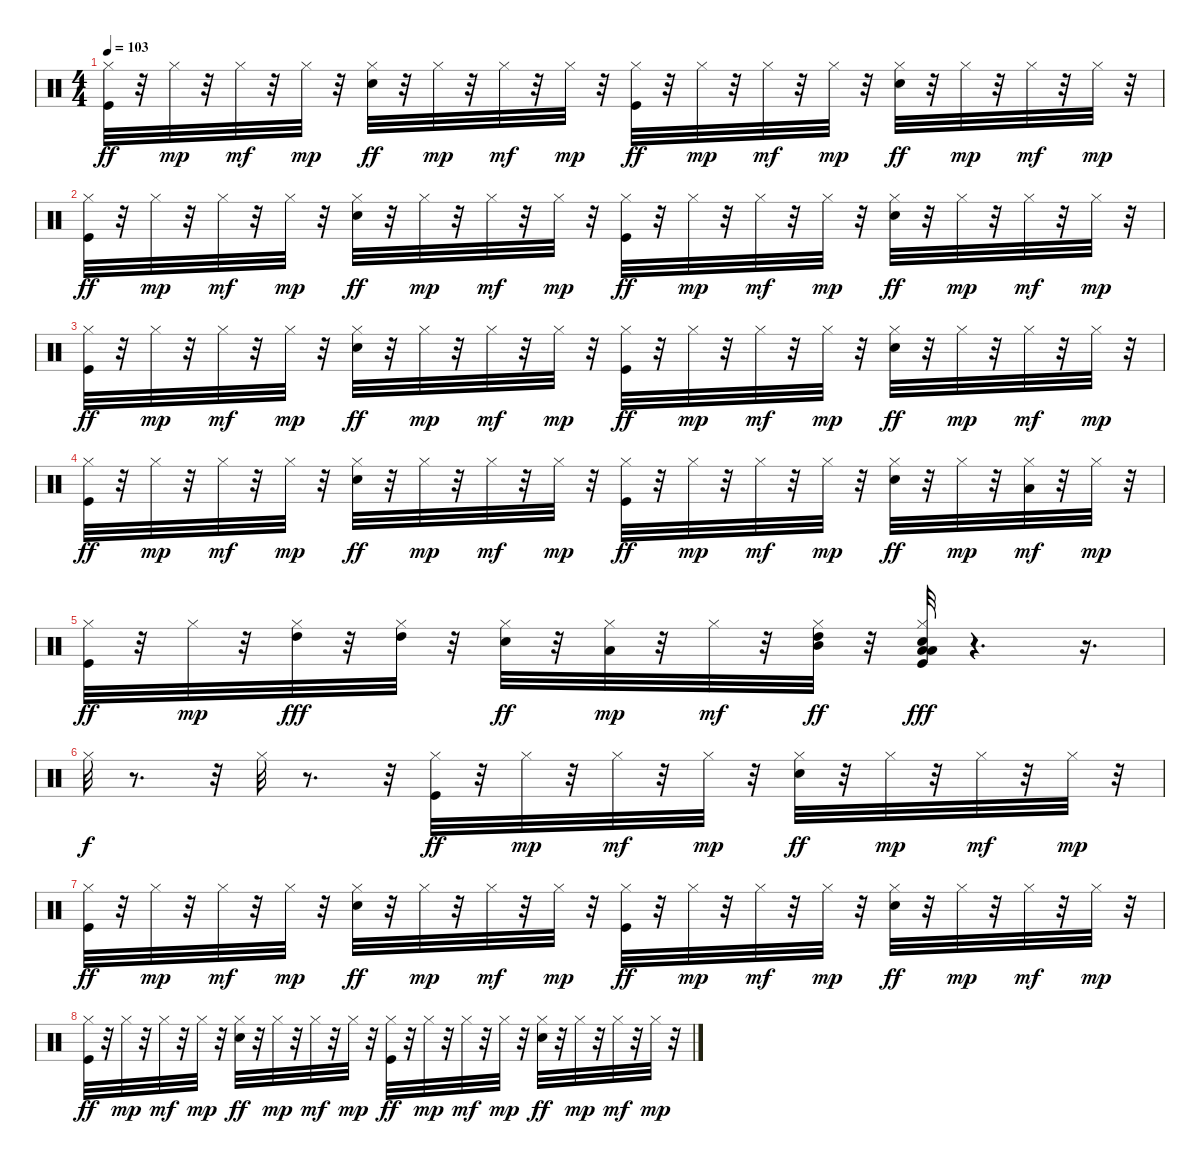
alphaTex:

\track "" {instrument percussion}
\staff {score}
\articulation defaults
\ts (4 4)
\tempo 103
\clef neutral
\ks c
("Kick (hit)" "Hi-Hat (closed)").32{dy ff} r.32 "Hi-Hat (closed)".32{dy mp} r.32 "Hi-Hat (closed)".32{dy mf} r.32 "Hi-Hat (closed)".32{dy mp} r.32 ("Snare (hit) 2" "Hi-Hat (closed)").32{dy ff} r.32 "Hi-Hat (closed)".32{dy mp} r.32 "Hi-Hat (closed)".32{dy mf} r.32 "Hi-Hat (closed)".32{dy mp} r.32 ("Kick (hit)" "Hi-Hat (closed)").32{dy ff} r.32 "Hi-Hat (closed)".32{dy mp} r.32 "Hi-Hat (closed)".32{dy mf} r.32 "Hi-Hat (closed)".32{dy mp} r.32 ("Snare (hit) 2" "Hi-Hat (closed)").32{dy ff} r.32 "Hi-Hat (closed)".32{dy mp} r.32 "Hi-Hat (closed)".32{dy mf} r.32 "Hi-Hat (closed)".32{dy mp} r.32 |
("Kick (hit)" "Hi-Hat (closed)").32{dy ff} r.32 "Hi-Hat (closed)".32{dy mp} r.32 "Hi-Hat (closed)".32{dy mf} r.32 "Hi-Hat (closed)".32{dy mp} r.32 ("Snare (hit) 2" "Hi-Hat (closed)").32{dy ff} r.32 "Hi-Hat (closed)".32{dy mp} r.32 "Hi-Hat (closed)".32{dy mf} r.32 "Hi-Hat (closed)".32{dy mp} r.32 ("Kick (hit)" "Hi-Hat (closed)").32{dy ff} r.32 "Hi-Hat (closed)".32{dy mp} r.32 "Hi-Hat (closed)".32{dy mf} r.32 "Hi-Hat (closed)".32{dy mp} r.32 ("Snare (hit) 2" "Hi-Hat (closed)").32{dy ff} r.32 "Hi-Hat (closed)".32{dy mp} r.32 "Hi-Hat (closed)".32{dy mf} r.32 "Hi-Hat (closed)".32{dy mp} r.32 |
("Kick (hit)" "Hi-Hat (closed)").32{dy ff} r.32 "Hi-Hat (closed)".32{dy mp} r.32 "Hi-Hat (closed)".32{dy mf} r.32 "Hi-Hat (closed)".32{dy mp} r.32 ("Snare (hit) 2" "Hi-Hat (closed)").32{dy ff} r.32 "Hi-Hat (closed)".32{dy mp} r.32 "Hi-Hat (closed)".32{dy mf} r.32 "Hi-Hat (closed)".32{dy mp} r.32 ("Kick (hit)" "Hi-Hat (closed)").32{dy ff} r.32 "Hi-Hat (closed)".32{dy mp} r.32 "Hi-Hat (closed)".32{dy mf} r.32 "Hi-Hat (closed)".32{dy mp} r.32 ("Snare (hit) 2" "Hi-Hat (closed)").32{dy ff} r.32 "Hi-Hat (closed)".32{dy mp} r.32 "Hi-Hat (closed)".32{dy mf} r.32 "Hi-Hat (closed)".32{dy mp} r.32 |
("Kick (hit)" "Hi-Hat (closed)").32{dy ff} r.32 "Hi-Hat (closed)".32{dy mp} r.32 "Hi-Hat (closed)".32{dy mf} r.32 "Hi-Hat (closed)".32{dy mp} r.32 ("Snare (hit) 2" "Hi-Hat (closed)").32{dy ff} r.32 "Hi-Hat (closed)".32{dy mp} r.32 "Hi-Hat (closed)".32{dy mf} r.32 "Hi-Hat (closed)".32{dy mp} r.32 ("Kick (hit)" "Hi-Hat (closed)").32{dy ff} r.32 "Hi-Hat (closed)".32{dy mp} r.32 "Hi-Hat (closed)".32{dy mf} r.32 "Hi-Hat (closed)".32{dy mp} r.32 ("Snare (hit) 2" "Hi-Hat (closed)").32{dy ff} r.32 "Hi-Hat (closed)".32{dy mp} r.32 ("Hi-Hat (closed)" "Low Floor Tom (hit)").32{dy mf} r.32 "Hi-Hat (closed)".32{dy mp} r.32 |
("Kick (hit)" "Hi-Hat (closed)").32{dy ff} r.32 "Hi-Hat (closed)".32{dy mp} r.32 ("Hi-Hat (closed)" "High Tom (hit)").32{dy fff} r.32 ("Hi-Hat (closed)" "High Tom (hit)").32 r.32 ("Snare (hit) 2" "Hi-Hat (closed)").32{dy ff} r.32 ("Hi-Hat (closed)" "Low Tom (hit)").32{dy mp} r.32 "Hi-Hat (closed)".32{dy mf} r.32 ("Hi-Hat (closed)" "High Tom (hit)" "Mid Tom (hit)").32{dy ff} r.32 ("Kick (hit)" "Snare (hit) 2" "Hi-Hat (closed)" "Low Tom (hit)" "Low Floor Tom (hit)").32{dy fff} r.4{d} r.16{d} |
"Hi-Hat (closed)".32{dy f} r.8{d} r.32 "Hi-Hat (closed)".32 r.8{d} r.32 ("Kick (hit)" "Hi-Hat (closed)").32{dy ff} r.32 "Hi-Hat (closed)".32{dy mp} r.32 "Hi-Hat (closed)".32{dy mf} r.32 "Hi-Hat (closed)".32{dy mp} r.32 ("Snare (hit) 2" "Hi-Hat (closed)").32{dy ff} r.32 "Hi-Hat (closed)".32{dy mp} r.32 "Hi-Hat (closed)".32{dy mf} r.32 "Hi-Hat (closed)".32{dy mp} r.32 |
("Kick (hit)" "Hi-Hat (closed)").32{dy ff} r.32 "Hi-Hat (closed)".32{dy mp} r.32 "Hi-Hat (closed)".32{dy mf} r.32 "Hi-Hat (closed)".32{dy mp} r.32 ("Snare (hit) 2" "Hi-Hat (closed)").32{dy ff} r.32 "Hi-Hat (closed)".32{dy mp} r.32 "Hi-Hat (closed)".32{dy mf} r.32 "Hi-Hat (closed)".32{dy mp} r.32 ("Kick (hit)" "Hi-Hat (closed)").32{dy ff} r.32 "Hi-Hat (closed)".32{dy mp} r.32 "Hi-Hat (closed)".32{dy mf} r.32 "Hi-Hat (closed)".32{dy mp} r.32 ("Snare (hit) 2" "Hi-Hat (closed)").32{dy ff} r.32 "Hi-Hat (closed)".32{dy mp} r.32 "Hi-Hat (closed)".32{dy mf} r.32 "Hi-Hat (closed)".32{dy mp} r.32 |
("Kick (hit)" "Hi-Hat (closed)").32{dy ff} r.32 "Hi-Hat (closed)".32{dy mp} r.32 "Hi-Hat (closed)".32{dy mf} r.32 "Hi-Hat (closed)".32{dy mp} r.32 ("Snare (hit) 2" "Hi-Hat (closed)").32{dy ff} r.32 "Hi-Hat (closed)".32{dy mp} r.32 "Hi-Hat (closed)".32{dy mf} r.32 "Hi-Hat (closed)".32{dy mp} r.32 ("Kick (hit)" "Hi-Hat (closed)").32{dy ff} r.32 "Hi-Hat (closed)".32{dy mp} r.32 "Hi-Hat (closed)".32{dy mf} r.32 "Hi-Hat (closed)".32{dy mp} r.32 ("Snare (hit) 2" "Hi-Hat (closed)").32{dy ff} r.32 "Hi-Hat (closed)".32{dy mp} r.32 "Hi-Hat (closed)".32{dy mf} r.32 "Hi-Hat (closed)".32{dy mp} r.32
